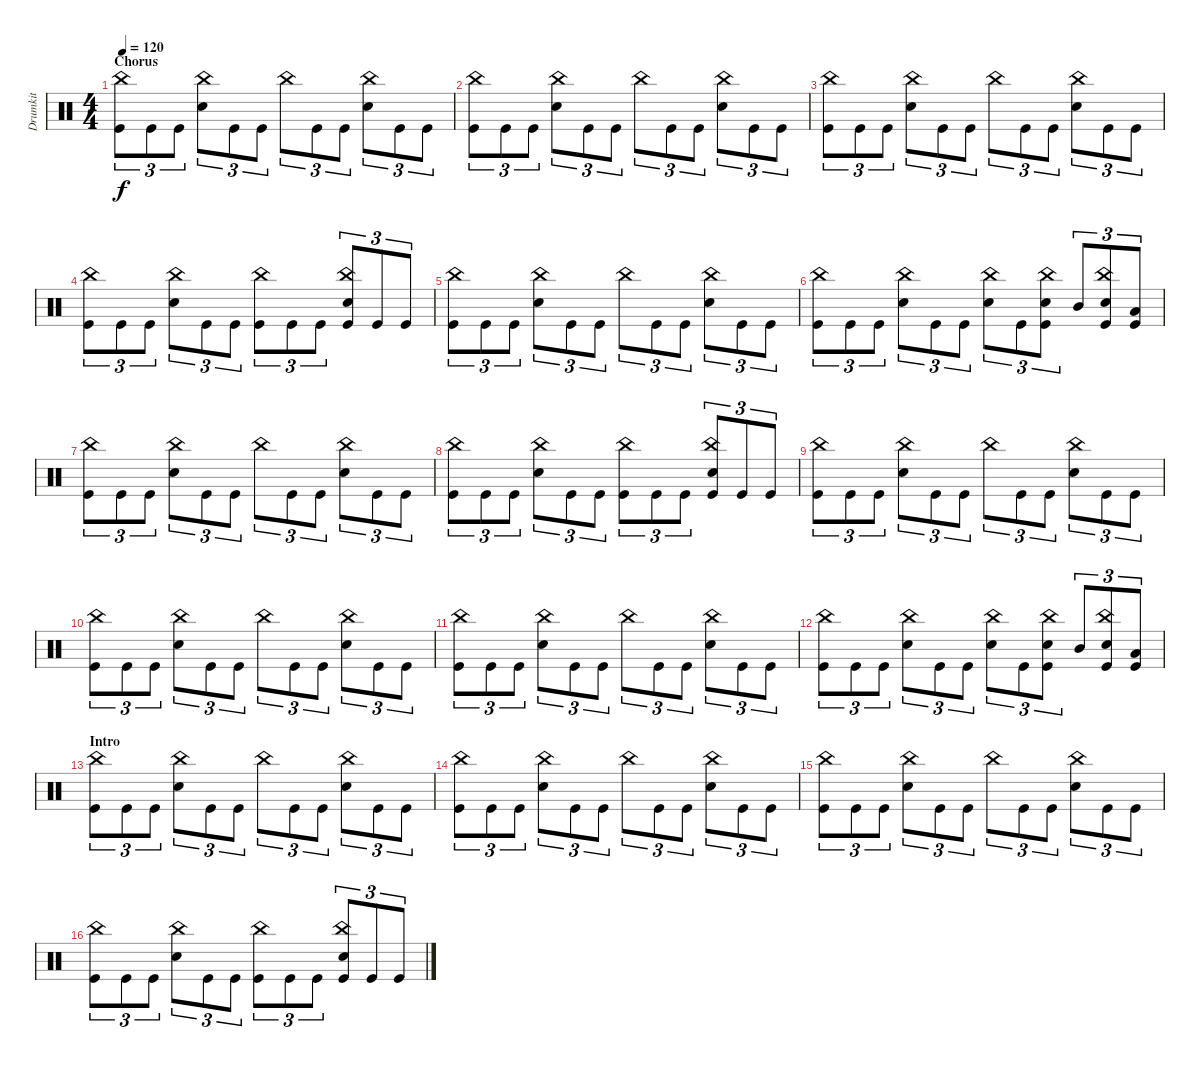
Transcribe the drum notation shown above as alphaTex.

\track ("Drumkit" "Drumkit") {instrument percussion}
\staff {score}
\articulation defaults
\ts (4 4)
\section ("" "Chorus")
\tempo 120
\clef neutral
\ks c
("Kick (hit)" "China (hit)").8{tu (3 2) dy f} "Kick (hit)".8{tu (3 2)} "Kick (hit)".8{tu (3 2)} ("Snare (hit) 2" "China (hit)").8{tu (3 2)} "Kick (hit)".8{tu (3 2)} "Kick (hit)".8{tu (3 2)} "China (hit)".8{tu (3 2)} "Kick (hit)".8{tu (3 2)} "Kick (hit)".8{tu (3 2)} ("Snare (hit) 2" "China (hit)").8{tu (3 2)} "Kick (hit)".8{tu (3 2)} "Kick (hit)".8{tu (3 2)} |
("Kick (hit)" "China (hit)").8{tu (3 2)} "Kick (hit)".8{tu (3 2)} "Kick (hit)".8{tu (3 2)} ("Snare (hit) 2" "China (hit)").8{tu (3 2)} "Kick (hit)".8{tu (3 2)} "Kick (hit)".8{tu (3 2)} "China (hit)".8{tu (3 2)} "Kick (hit)".8{tu (3 2)} "Kick (hit)".8{tu (3 2)} ("Snare (hit) 2" "China (hit)").8{tu (3 2)} "Kick (hit)".8{tu (3 2)} "Kick (hit)".8{tu (3 2)} |
("Kick (hit)" "China (hit)").8{tu (3 2)} "Kick (hit)".8{tu (3 2)} "Kick (hit)".8{tu (3 2)} ("Snare (hit) 2" "China (hit)").8{tu (3 2)} "Kick (hit)".8{tu (3 2)} "Kick (hit)".8{tu (3 2)} "China (hit)".8{tu (3 2)} "Kick (hit)".8{tu (3 2)} "Kick (hit)".8{tu (3 2)} ("Snare (hit) 2" "China (hit)").8{tu (3 2)} "Kick (hit)".8{tu (3 2)} "Kick (hit)".8{tu (3 2)} |
("Kick (hit)" "China (hit)").8{tu (3 2)} "Kick (hit)".8{tu (3 2)} "Kick (hit)".8{tu (3 2)} ("Snare (hit) 2" "China (hit)").8{tu (3 2)} "Kick (hit)".8{tu (3 2)} "Kick (hit)".8{tu (3 2)} ("China (hit)" "Kick (hit)").8{tu (3 2)} "Kick (hit)".8{tu (3 2)} "Kick (hit)".8{tu (3 2)} ("Snare (hit) 2" "China (hit)" "Kick (hit)").8{tu (3 2)} "Kick (hit)".8{tu (3 2)} "Kick (hit)".8{tu (3 2)} |
("Kick (hit)" "China (hit)").8{tu (3 2)} "Kick (hit)".8{tu (3 2)} "Kick (hit)".8{tu (3 2)} ("Snare (hit) 2" "China (hit)").8{tu (3 2)} "Kick (hit)".8{tu (3 2)} "Kick (hit)".8{tu (3 2)} "China (hit)".8{tu (3 2)} "Kick (hit)".8{tu (3 2)} "Kick (hit)".8{tu (3 2)} ("Snare (hit) 2" "China (hit)").8{tu (3 2)} "Kick (hit)".8{tu (3 2)} "Kick (hit)".8{tu (3 2)} |
("Kick (hit)" "China (hit)").8{tu (3 2)} "Kick (hit)".8{tu (3 2)} "Kick (hit)".8{tu (3 2)} ("Snare (hit) 2" "China (hit)").8{tu (3 2)} "Kick (hit)".8{tu (3 2)} "Kick (hit)".8{tu (3 2)} ("China (hit)" "Snare (hit) 2").8{tu (3 2)} "Kick (hit)".8{tu (3 2)} ("Kick (hit)" "Snare (hit) 2" "China (hit)").8{tu (3 2)} "Mid Tom (hit)".8{tu (3 2)} ("Kick (hit)" "Snare (hit) 2" "China (hit)").8{tu (3 2)} ("Kick (hit)" "Low Tom (hit)").8{tu (3 2)} |
("Kick (hit)" "China (hit)").8{tu (3 2)} "Kick (hit)".8{tu (3 2)} "Kick (hit)".8{tu (3 2)} ("Snare (hit) 2" "China (hit)").8{tu (3 2)} "Kick (hit)".8{tu (3 2)} "Kick (hit)".8{tu (3 2)} "China (hit)".8{tu (3 2)} "Kick (hit)".8{tu (3 2)} "Kick (hit)".8{tu (3 2)} ("Snare (hit) 2" "China (hit)").8{tu (3 2)} "Kick (hit)".8{tu (3 2)} "Kick (hit)".8{tu (3 2)} |
("Kick (hit)" "China (hit)").8{tu (3 2)} "Kick (hit)".8{tu (3 2)} "Kick (hit)".8{tu (3 2)} ("Snare (hit) 2" "China (hit)").8{tu (3 2)} "Kick (hit)".8{tu (3 2)} "Kick (hit)".8{tu (3 2)} ("China (hit)" "Kick (hit)").8{tu (3 2)} "Kick (hit)".8{tu (3 2)} "Kick (hit)".8{tu (3 2)} ("Snare (hit) 2" "China (hit)" "Kick (hit)").8{tu (3 2)} "Kick (hit)".8{tu (3 2)} "Kick (hit)".8{tu (3 2)} |
("Kick (hit)" "China (hit)").8{tu (3 2)} "Kick (hit)".8{tu (3 2)} "Kick (hit)".8{tu (3 2)} ("Snare (hit) 2" "China (hit)").8{tu (3 2)} "Kick (hit)".8{tu (3 2)} "Kick (hit)".8{tu (3 2)} "China (hit)".8{tu (3 2)} "Kick (hit)".8{tu (3 2)} "Kick (hit)".8{tu (3 2)} ("Snare (hit) 2" "China (hit)").8{tu (3 2)} "Kick (hit)".8{tu (3 2)} "Kick (hit)".8{tu (3 2)} |
("Kick (hit)" "China (hit)").8{tu (3 2)} "Kick (hit)".8{tu (3 2)} "Kick (hit)".8{tu (3 2)} ("Snare (hit) 2" "China (hit)").8{tu (3 2)} "Kick (hit)".8{tu (3 2)} "Kick (hit)".8{tu (3 2)} "China (hit)".8{tu (3 2)} "Kick (hit)".8{tu (3 2)} "Kick (hit)".8{tu (3 2)} ("Snare (hit) 2" "China (hit)").8{tu (3 2)} "Kick (hit)".8{tu (3 2)} "Kick (hit)".8{tu (3 2)} |
("Kick (hit)" "China (hit)").8{tu (3 2)} "Kick (hit)".8{tu (3 2)} "Kick (hit)".8{tu (3 2)} ("Snare (hit) 2" "China (hit)").8{tu (3 2)} "Kick (hit)".8{tu (3 2)} "Kick (hit)".8{tu (3 2)} "China (hit)".8{tu (3 2)} "Kick (hit)".8{tu (3 2)} "Kick (hit)".8{tu (3 2)} ("Snare (hit) 2" "China (hit)").8{tu (3 2)} "Kick (hit)".8{tu (3 2)} "Kick (hit)".8{tu (3 2)} |
("Kick (hit)" "China (hit)").8{tu (3 2)} "Kick (hit)".8{tu (3 2)} "Kick (hit)".8{tu (3 2)} ("Snare (hit) 2" "China (hit)").8{tu (3 2)} "Kick (hit)".8{tu (3 2)} "Kick (hit)".8{tu (3 2)} ("China (hit)" "Snare (hit) 2").8{tu (3 2)} "Kick (hit)".8{tu (3 2)} ("Kick (hit)" "Snare (hit) 2" "China (hit)").8{tu (3 2)} "Mid Tom (hit)".8{tu (3 2)} ("Kick (hit)" "Snare (hit) 2" "China (hit)").8{tu (3 2)} ("Kick (hit)" "Low Tom (hit)").8{tu (3 2)} |
\section ("" "Intro")
("Kick (hit)" "China (hit)").8{tu (3 2)} "Kick (hit)".8{tu (3 2)} "Kick (hit)".8{tu (3 2)} ("Snare (hit) 2" "China (hit)").8{tu (3 2)} "Kick (hit)".8{tu (3 2)} "Kick (hit)".8{tu (3 2)} "China (hit)".8{tu (3 2)} "Kick (hit)".8{tu (3 2)} "Kick (hit)".8{tu (3 2)} ("Snare (hit) 2" "China (hit)").8{tu (3 2)} "Kick (hit)".8{tu (3 2)} "Kick (hit)".8{tu (3 2)} |
("Kick (hit)" "China (hit)").8{tu (3 2)} "Kick (hit)".8{tu (3 2)} "Kick (hit)".8{tu (3 2)} ("Snare (hit) 2" "China (hit)").8{tu (3 2)} "Kick (hit)".8{tu (3 2)} "Kick (hit)".8{tu (3 2)} "China (hit)".8{tu (3 2)} "Kick (hit)".8{tu (3 2)} "Kick (hit)".8{tu (3 2)} ("Snare (hit) 2" "China (hit)").8{tu (3 2)} "Kick (hit)".8{tu (3 2)} "Kick (hit)".8{tu (3 2)} |
("Kick (hit)" "China (hit)").8{tu (3 2)} "Kick (hit)".8{tu (3 2)} "Kick (hit)".8{tu (3 2)} ("Snare (hit) 2" "China (hit)").8{tu (3 2)} "Kick (hit)".8{tu (3 2)} "Kick (hit)".8{tu (3 2)} "China (hit)".8{tu (3 2)} "Kick (hit)".8{tu (3 2)} "Kick (hit)".8{tu (3 2)} ("Snare (hit) 2" "China (hit)").8{tu (3 2)} "Kick (hit)".8{tu (3 2)} "Kick (hit)".8{tu (3 2)} |
("Kick (hit)" "China (hit)").8{tu (3 2)} "Kick (hit)".8{tu (3 2)} "Kick (hit)".8{tu (3 2)} ("Snare (hit) 2" "China (hit)").8{tu (3 2)} "Kick (hit)".8{tu (3 2)} "Kick (hit)".8{tu (3 2)} ("China (hit)" "Kick (hit)").8{tu (3 2)} "Kick (hit)".8{tu (3 2)} "Kick (hit)".8{tu (3 2)} ("Snare (hit) 2" "China (hit)" "Kick (hit)").8{tu (3 2)} "Kick (hit)".8{tu (3 2)} "Kick (hit)".8{tu (3 2)}
